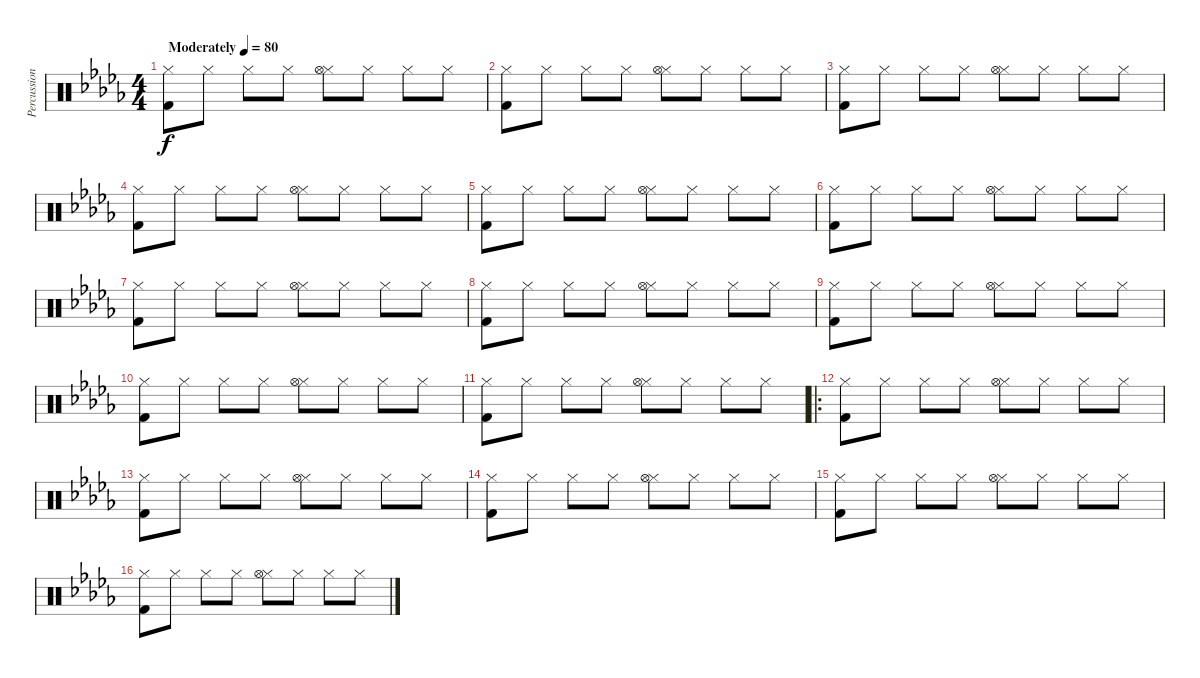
\track ("Percussion" "Percussion") {instrument percussion}
\staff {score}
\articulation defaults
\ts (4 4)
\tempo (80 "Moderately")
\clef neutral
\ks db
("Hi-Hat (closed)" "Kick (hit) 2").8{dy f} "Hi-Hat (closed)".8 "Hi-Hat (closed)".8 "Hi-Hat (closed)".8 ("Hi-Hat (closed)" "Hi-Hat (open)").8 "Hi-Hat (closed)".8 "Hi-Hat (closed)".8 "Hi-Hat (closed)".8 |
("Hi-Hat (closed)" "Kick (hit) 2").8 "Hi-Hat (closed)".8 "Hi-Hat (closed)".8 "Hi-Hat (closed)".8 ("Hi-Hat (closed)" "Hi-Hat (open)").8 "Hi-Hat (closed)".8 "Hi-Hat (closed)".8 "Hi-Hat (closed)".8 |
("Hi-Hat (closed)" "Kick (hit) 2").8 "Hi-Hat (closed)".8 "Hi-Hat (closed)".8 "Hi-Hat (closed)".8 ("Hi-Hat (closed)" "Hi-Hat (open)").8 "Hi-Hat (closed)".8 "Hi-Hat (closed)".8 "Hi-Hat (closed)".8 |
("Hi-Hat (closed)" "Kick (hit) 2").8 "Hi-Hat (closed)".8 "Hi-Hat (closed)".8 "Hi-Hat (closed)".8 ("Hi-Hat (closed)" "Hi-Hat (open)").8 "Hi-Hat (closed)".8 "Hi-Hat (closed)".8 "Hi-Hat (closed)".8 |
("Hi-Hat (closed)" "Kick (hit) 2").8 "Hi-Hat (closed)".8 "Hi-Hat (closed)".8 "Hi-Hat (closed)".8 ("Hi-Hat (closed)" "Hi-Hat (open)").8 "Hi-Hat (closed)".8 "Hi-Hat (closed)".8 "Hi-Hat (closed)".8 |
("Hi-Hat (closed)" "Kick (hit) 2").8 "Hi-Hat (closed)".8 "Hi-Hat (closed)".8 "Hi-Hat (closed)".8 ("Hi-Hat (closed)" "Hi-Hat (open)").8 "Hi-Hat (closed)".8 "Hi-Hat (closed)".8 "Hi-Hat (closed)".8 |
("Hi-Hat (closed)" "Kick (hit) 2").8 "Hi-Hat (closed)".8 "Hi-Hat (closed)".8 "Hi-Hat (closed)".8 ("Hi-Hat (closed)" "Hi-Hat (open)").8 "Hi-Hat (closed)".8 "Hi-Hat (closed)".8 "Hi-Hat (closed)".8 |
("Hi-Hat (closed)" "Kick (hit) 2").8 "Hi-Hat (closed)".8 "Hi-Hat (closed)".8 "Hi-Hat (closed)".8 ("Hi-Hat (closed)" "Hi-Hat (open)").8 "Hi-Hat (closed)".8 "Hi-Hat (closed)".8 "Hi-Hat (closed)".8 |
("Hi-Hat (closed)" "Kick (hit) 2").8 "Hi-Hat (closed)".8 "Hi-Hat (closed)".8 "Hi-Hat (closed)".8 ("Hi-Hat (closed)" "Hi-Hat (open)").8 "Hi-Hat (closed)".8 "Hi-Hat (closed)".8 "Hi-Hat (closed)".8 |
("Hi-Hat (closed)" "Kick (hit) 2").8 "Hi-Hat (closed)".8 "Hi-Hat (closed)".8 "Hi-Hat (closed)".8 ("Hi-Hat (closed)" "Hi-Hat (open)").8 "Hi-Hat (closed)".8 "Hi-Hat (closed)".8 "Hi-Hat (closed)".8 |
("Hi-Hat (closed)" "Kick (hit) 2").8 "Hi-Hat (closed)".8 "Hi-Hat (closed)".8 "Hi-Hat (closed)".8 ("Hi-Hat (closed)" "Hi-Hat (open)").8 "Hi-Hat (closed)".8 "Hi-Hat (closed)".8 "Hi-Hat (closed)".8 |
\ro
("Hi-Hat (closed)" "Kick (hit) 2").8 "Hi-Hat (closed)".8 "Hi-Hat (closed)".8 "Hi-Hat (closed)".8 ("Hi-Hat (closed)" "Hi-Hat (open)").8 "Hi-Hat (closed)".8 "Hi-Hat (closed)".8 "Hi-Hat (closed)".8 |
("Hi-Hat (closed)" "Kick (hit) 2").8 "Hi-Hat (closed)".8 "Hi-Hat (closed)".8 "Hi-Hat (closed)".8 ("Hi-Hat (closed)" "Hi-Hat (open)").8 "Hi-Hat (closed)".8 "Hi-Hat (closed)".8 "Hi-Hat (closed)".8 |
("Hi-Hat (closed)" "Kick (hit) 2").8 "Hi-Hat (closed)".8 "Hi-Hat (closed)".8 "Hi-Hat (closed)".8 ("Hi-Hat (closed)" "Hi-Hat (open)").8 "Hi-Hat (closed)".8 "Hi-Hat (closed)".8 "Hi-Hat (closed)".8 |
("Hi-Hat (closed)" "Kick (hit) 2").8 "Hi-Hat (closed)".8 "Hi-Hat (closed)".8 "Hi-Hat (closed)".8 ("Hi-Hat (closed)" "Hi-Hat (open)").8 "Hi-Hat (closed)".8 "Hi-Hat (closed)".8 "Hi-Hat (closed)".8 |
("Hi-Hat (closed)" "Kick (hit) 2").8 "Hi-Hat (closed)".8 "Hi-Hat (closed)".8 "Hi-Hat (closed)".8 ("Hi-Hat (closed)" "Hi-Hat (open)").8 "Hi-Hat (closed)".8 "Hi-Hat (closed)".8 "Hi-Hat (closed)".8
